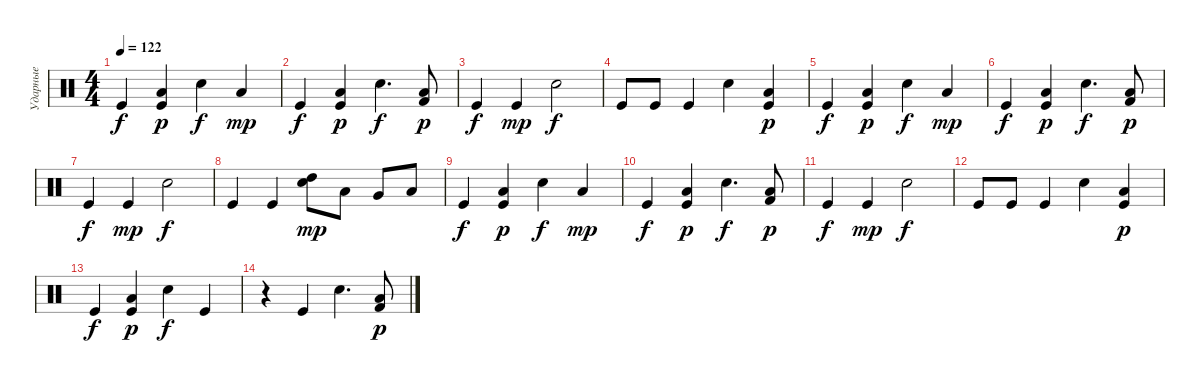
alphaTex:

\track ("Ударные" "Ударные") {instrument percussion}
\staff {score}
\articulation defaults
\ts (4 4)
\tempo 122
\clef neutral
\ks c "Kick (hit)".4{dy f}
("Low Floor Tom (hit)" "Kick (hit)").4{dy p} "Electric Snare (hit)".4{dy f} "Low Floor Tom (hit)".4{dy mp} |
"Kick (hit)".4{dy f} ("Low Floor Tom (hit)" "Kick (hit)").4{dy p} "Electric Snare (hit)".4{d dy f} ("Low Floor Tom (hit)" "Kick (hit) 2").8{dy p} |
"Kick (hit)".4{dy f} "Kick (hit)".4{dy mp} "Electric Snare (hit)".2{dy f} |
"Kick (hit)".8 "Kick (hit)".8 "Kick (hit)".4 "Electric Snare (hit)".4 ("Low Floor Tom (hit)" "Kick (hit)").4{dy p} |
"Kick (hit)".4{dy f} ("Low Floor Tom (hit)" "Kick (hit)").4{dy p} "Electric Snare (hit)".4{dy f} "Low Floor Tom (hit)".4{dy mp} |
"Kick (hit)".4{dy f} ("Low Floor Tom (hit)" "Kick (hit)").4{dy p} "Electric Snare (hit)".4{d dy f} ("Low Floor Tom (hit)" "Kick (hit) 2").8{dy p} |
"Kick (hit)".4{dy f} "Kick (hit)".4{dy mp} "Electric Snare (hit)".2{dy f} |
"Kick (hit)".4 "Kick (hit)".4 ("High Tom (hit)" "Electric Snare (hit)").8{dy mp} "Low Tom (hit)".8 "Very Low Tom (hit)".8 "Low Floor Tom (hit)".8 |
"Kick (hit)".4{dy f} ("Low Floor Tom (hit)" "Kick (hit)").4{dy p} "Electric Snare (hit)".4{dy f} "Low Floor Tom (hit)".4{dy mp} |
"Kick (hit)".4{dy f} ("Low Floor Tom (hit)" "Kick (hit)").4{dy p} "Electric Snare (hit)".4{d dy f} ("Low Floor Tom (hit)" "Kick (hit) 2").8{dy p} |
"Kick (hit)".4{dy f} "Kick (hit)".4{dy mp} "Electric Snare (hit)".2{dy f} |
"Kick (hit)".8 "Kick (hit)".8 "Kick (hit)".4 "Electric Snare (hit)".4 ("Low Floor Tom (hit)" "Kick (hit)").4{dy p} |
"Kick (hit)".4{dy f} ("Low Floor Tom (hit)" "Kick (hit)").4{dy p} "Electric Snare (hit)".4{dy f} "Kick (hit)".4 |
r.4 "Kick (hit)".4 "Electric Snare (hit)".4{d} ("Low Floor Tom (hit)" "Kick (hit) 2").8{dy p}
